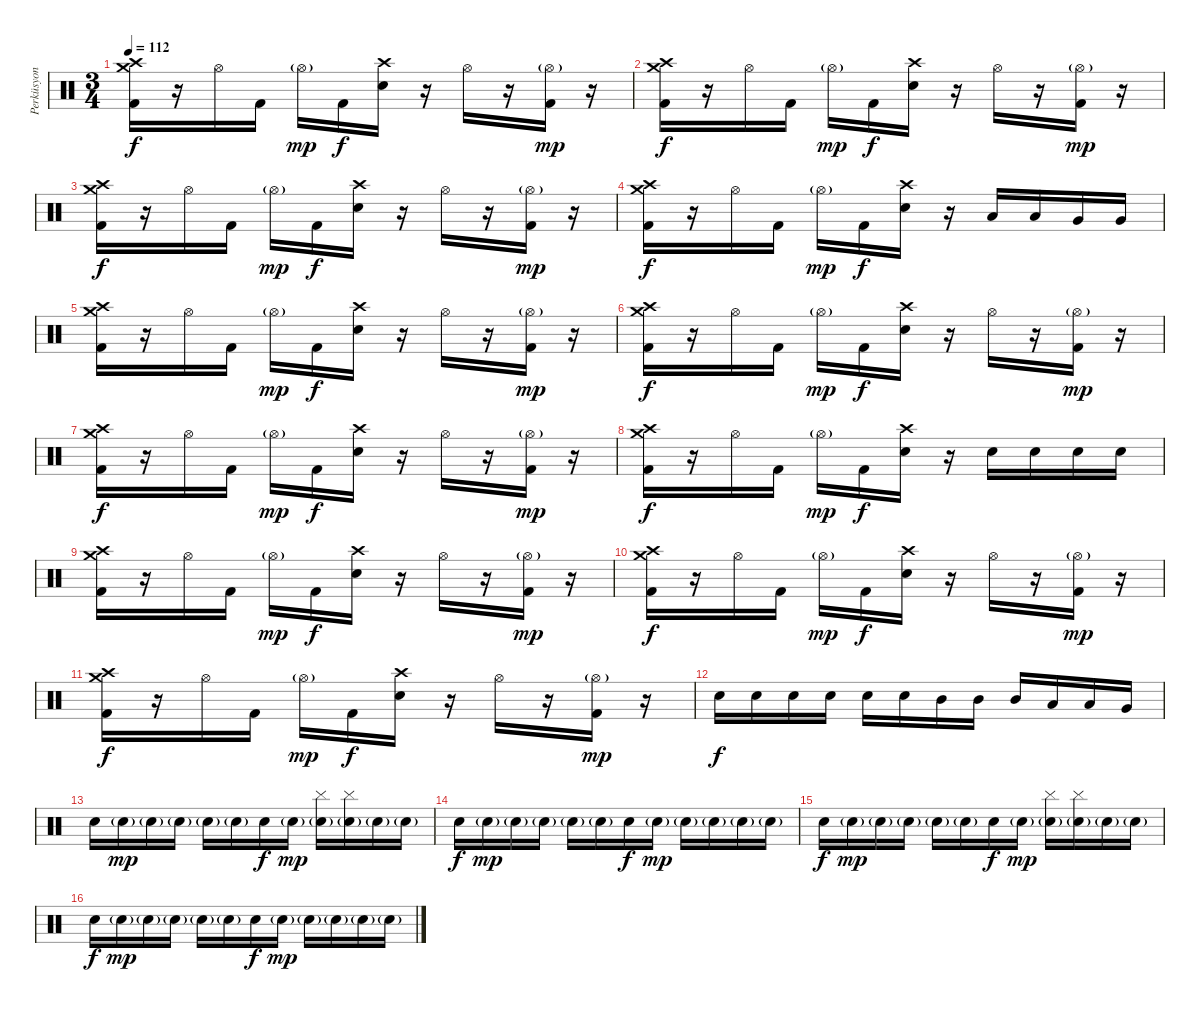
\track ("Perküsyon" "Perküsyon") {instrument percussion}
\staff {score}
\articulation defaults
\ts (3 4)
\tempo 112
\clef neutral
\ks c
("Crash high (hit)" "Crash medium (hit)" "Kick (hit) 2").16{dy f} r.16 "Hi-Hat (open)".16 "Kick (hit) 2".16 "Hi-Hat (open)"{g}.16{dy mp} "Kick (hit) 2".16{dy f} ("Crash high (hit)" "Electric Snare (hit)").16 r.16 "Hi-Hat (open)".16 r.16 ("Hi-Hat (open)"{g} "Kick (hit) 2").16{dy mp} r.16 |
("Crash high (hit)" "Crash medium (hit)" "Kick (hit) 2").16{dy f} r.16 "Hi-Hat (open)".16 "Kick (hit) 2".16 "Hi-Hat (open)"{g}.16{dy mp} "Kick (hit) 2".16{dy f} ("Crash high (hit)" "Electric Snare (hit)").16 r.16 "Hi-Hat (open)".16 r.16 ("Hi-Hat (open)"{g} "Kick (hit) 2").16{dy mp} r.16 |
("Crash high (hit)" "Crash medium (hit)" "Kick (hit) 2").16{dy f} r.16 "Hi-Hat (open)".16 "Kick (hit) 2".16 "Hi-Hat (open)"{g}.16{dy mp} "Kick (hit) 2".16{dy f} ("Crash high (hit)" "Electric Snare (hit)").16 r.16 "Hi-Hat (open)".16 r.16 ("Hi-Hat (open)"{g} "Kick (hit) 2").16{dy mp} r.16 |
("Crash high (hit)" "Crash medium (hit)" "Kick (hit) 2").16{dy f} r.16 "Hi-Hat (open)".16 "Kick (hit) 2".16 "Hi-Hat (open)"{g}.16{dy mp} "Kick (hit) 2".16{dy f} ("Crash high (hit)" "Electric Snare (hit)").16 r.16 "Low Tom (hit)".16 "Low Tom (hit)".16 "Very Low Tom (hit)".16 "Very Low Tom (hit)".16 |
("Crash high (hit)" "Crash medium (hit)" "Kick (hit) 2").16 r.16 "Hi-Hat (open)".16 "Kick (hit) 2".16 "Hi-Hat (open)"{g}.16{dy mp} "Kick (hit) 2".16{dy f} ("Crash high (hit)" "Electric Snare (hit)").16 r.16 "Hi-Hat (open)".16 r.16 ("Hi-Hat (open)"{g} "Kick (hit) 2").16{dy mp} r.16 |
("Crash high (hit)" "Crash medium (hit)" "Kick (hit) 2").16{dy f} r.16 "Hi-Hat (open)".16 "Kick (hit) 2".16 "Hi-Hat (open)"{g}.16{dy mp} "Kick (hit) 2".16{dy f} ("Crash high (hit)" "Electric Snare (hit)").16 r.16 "Hi-Hat (open)".16 r.16 ("Hi-Hat (open)"{g} "Kick (hit) 2").16{dy mp} r.16 |
("Crash high (hit)" "Crash medium (hit)" "Kick (hit) 2").16{dy f} r.16 "Hi-Hat (open)".16 "Kick (hit) 2".16 "Hi-Hat (open)"{g}.16{dy mp} "Kick (hit) 2".16{dy f} ("Crash high (hit)" "Electric Snare (hit)").16 r.16 "Hi-Hat (open)".16 r.16 ("Hi-Hat (open)"{g} "Kick (hit) 2").16{dy mp} r.16 |
("Crash high (hit)" "Crash medium (hit)" "Kick (hit) 2").16{dy f} r.16 "Hi-Hat (open)".16 "Kick (hit) 2".16 "Hi-Hat (open)"{g}.16{dy mp} "Kick (hit) 2".16{dy f} ("Crash high (hit)" "Electric Snare (hit)").16 r.16 "Electric Snare (hit)".16 "Electric Snare (hit)".16 "Electric Snare (hit)".16 "Electric Snare (hit)".16 |
("Crash high (hit)" "Crash medium (hit)" "Kick (hit) 2").16 r.16 "Hi-Hat (open)".16 "Kick (hit) 2".16 "Hi-Hat (open)"{g}.16{dy mp} "Kick (hit) 2".16{dy f} ("Crash high (hit)" "Electric Snare (hit)").16 r.16 "Hi-Hat (open)".16 r.16 ("Hi-Hat (open)"{g} "Kick (hit) 2").16{dy mp} r.16 |
("Crash high (hit)" "Crash medium (hit)" "Kick (hit) 2").16{dy f} r.16 "Hi-Hat (open)".16 "Kick (hit) 2".16 "Hi-Hat (open)"{g}.16{dy mp} "Kick (hit) 2".16{dy f} ("Crash high (hit)" "Electric Snare (hit)").16 r.16 "Hi-Hat (open)".16 r.16 ("Hi-Hat (open)"{g} "Kick (hit) 2").16{dy mp} r.16 |
("Crash high (hit)" "Crash medium (hit)" "Kick (hit) 2").16{dy f} r.16 "Hi-Hat (open)".16 "Kick (hit) 2".16 "Hi-Hat (open)"{g}.16{dy mp} "Kick (hit) 2".16{dy f} ("Crash high (hit)" "Electric Snare (hit)").16 r.16 "Hi-Hat (open)".16 r.16 ("Hi-Hat (open)"{g} "Kick (hit) 2").16{dy mp} r.16 |
"Electric Snare (hit)".16{dy f} "Electric Snare (hit)".16 "Electric Snare (hit)".16 "Electric Snare (hit)".16 "Electric Snare (hit)".16 "Electric Snare (hit)".16 "Mid Tom (hit)".16 "Mid Tom (hit)".16 "Mid Tom (hit)".16 "Low Tom (hit)".16 "Low Tom (hit)".16 "Very Low Tom (hit)".16 |
"Electric Snare (hit)".16 "Electric Snare (hit)"{g}.16{dy mp} "Electric Snare (hit)"{g}.16 "Electric Snare (hit)"{g}.16 "Electric Snare (hit)"{g}.16 "Electric Snare (hit)"{g}.16 "Electric Snare (hit)".16{dy f} "Electric Snare (hit)"{g}.16{dy mp} ("Cymbal (hit)" "Electric Snare (hit)"{g}).16 ("Cymbal (hit)" "Electric Snare (hit)"{g}).16 "Electric Snare (hit)"{g}.16 "Electric Snare (hit)"{g}.16 |
"Electric Snare (hit)".16{dy f} "Electric Snare (hit)"{g}.16{dy mp} "Electric Snare (hit)"{g}.16 "Electric Snare (hit)"{g}.16 "Electric Snare (hit)"{g}.16 "Electric Snare (hit)"{g}.16 "Electric Snare (hit)".16{dy f} "Electric Snare (hit)"{g}.16{dy mp} "Electric Snare (hit)"{g}.16 "Electric Snare (hit)"{g}.16 "Electric Snare (hit)"{g}.16 "Electric Snare (hit)"{g}.16 |
"Electric Snare (hit)".16{dy f} "Electric Snare (hit)"{g}.16{dy mp} "Electric Snare (hit)"{g}.16 "Electric Snare (hit)"{g}.16 "Electric Snare (hit)"{g}.16 "Electric Snare (hit)"{g}.16 "Electric Snare (hit)".16{dy f} "Electric Snare (hit)"{g}.16{dy mp} ("Cymbal (hit)" "Electric Snare (hit)"{g}).16 ("Cymbal (hit)" "Electric Snare (hit)"{g}).16 "Electric Snare (hit)"{g}.16 "Electric Snare (hit)"{g}.16 |
"Electric Snare (hit)".16{dy f} "Electric Snare (hit)"{g}.16{dy mp} "Electric Snare (hit)"{g}.16 "Electric Snare (hit)"{g}.16 "Electric Snare (hit)"{g}.16 "Electric Snare (hit)"{g}.16 "Electric Snare (hit)".16{dy f} "Electric Snare (hit)"{g}.16{dy mp} "Electric Snare (hit)"{g}.16 "Electric Snare (hit)"{g}.16 "Electric Snare (hit)"{g}.16 "Electric Snare (hit)"{g}.16
